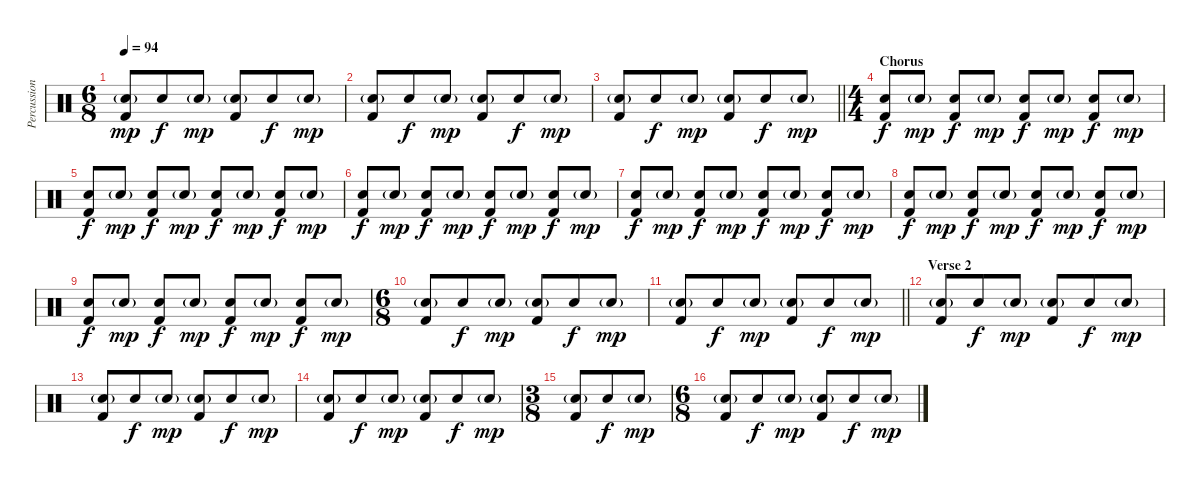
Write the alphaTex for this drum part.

\track ("Percussion" "Percussion") {instrument percussion}
\staff {score}
\articulation defaults
\ts (6 8)
\tempo 94
\clef neutral
\ks c
("Snare (hit) 2"{g} "Kick (hit) 2").8{dy mp} "Snare (hit) 2".8{dy f} "Snare (hit) 2"{g}.8{dy mp} ("Snare (hit) 2"{g} "Kick (hit) 2").8 "Snare (hit) 2".8{dy f} "Snare (hit) 2"{g}.8{dy mp} |
("Snare (hit) 2"{g} "Kick (hit) 2").8 "Snare (hit) 2".8{dy f} "Snare (hit) 2"{g}.8{dy mp} ("Snare (hit) 2"{g} "Kick (hit) 2").8 "Snare (hit) 2".8{dy f} "Snare (hit) 2"{g}.8{dy mp} |
\barLineRight lightlight
("Snare (hit) 2"{g} "Kick (hit) 2").8 "Snare (hit) 2".8{dy f} "Snare (hit) 2"{g}.8{dy mp} ("Snare (hit) 2"{g} "Kick (hit) 2").8 "Snare (hit) 2".8{dy f} "Snare (hit) 2"{g}.8{dy mp} |
\ts (4 4)
\section ("" "Chorus")
("Snare (hit) 2" "Kick (hit) 2").8{dy f} "Snare (hit) 2"{g}.8{dy mp} ("Snare (hit) 2" "Kick (hit) 2").8{dy f} "Snare (hit) 2"{g}.8{dy mp} ("Snare (hit) 2" "Kick (hit) 2").8{dy f} "Snare (hit) 2"{g}.8{dy mp} ("Snare (hit) 2" "Kick (hit) 2").8{dy f} "Snare (hit) 2"{g}.8{dy mp} |
("Snare (hit) 2" "Kick (hit) 2").8{dy f} "Snare (hit) 2"{g}.8{dy mp} ("Snare (hit) 2" "Kick (hit) 2").8{dy f} "Snare (hit) 2"{g}.8{dy mp} ("Snare (hit) 2" "Kick (hit) 2").8{dy f} "Snare (hit) 2"{g}.8{dy mp} ("Snare (hit) 2" "Kick (hit) 2").8{dy f} "Snare (hit) 2"{g}.8{dy mp} |
("Snare (hit) 2" "Kick (hit) 2").8{dy f} "Snare (hit) 2"{g}.8{dy mp} ("Snare (hit) 2" "Kick (hit) 2").8{dy f} "Snare (hit) 2"{g}.8{dy mp} ("Snare (hit) 2" "Kick (hit) 2").8{dy f} "Snare (hit) 2"{g}.8{dy mp} ("Snare (hit) 2" "Kick (hit) 2").8{dy f} "Snare (hit) 2"{g}.8{dy mp} |
("Snare (hit) 2" "Kick (hit) 2").8{dy f} "Snare (hit) 2"{g}.8{dy mp} ("Snare (hit) 2" "Kick (hit) 2").8{dy f} "Snare (hit) 2"{g}.8{dy mp} ("Snare (hit) 2" "Kick (hit) 2").8{dy f} "Snare (hit) 2"{g}.8{dy mp} ("Snare (hit) 2" "Kick (hit) 2").8{dy f} "Snare (hit) 2"{g}.8{dy mp} |
("Snare (hit) 2" "Kick (hit) 2").8{dy f} "Snare (hit) 2"{g}.8{dy mp} ("Snare (hit) 2" "Kick (hit) 2").8{dy f} "Snare (hit) 2"{g}.8{dy mp} ("Snare (hit) 2" "Kick (hit) 2").8{dy f} "Snare (hit) 2"{g}.8{dy mp} ("Snare (hit) 2" "Kick (hit) 2").8{dy f} "Snare (hit) 2"{g}.8{dy mp} |
("Snare (hit) 2" "Kick (hit) 2").8{dy f} "Snare (hit) 2"{g}.8{dy mp} ("Snare (hit) 2" "Kick (hit) 2").8{dy f} "Snare (hit) 2"{g}.8{dy mp} ("Snare (hit) 2" "Kick (hit) 2").8{dy f} "Snare (hit) 2"{g}.8{dy mp} ("Snare (hit) 2" "Kick (hit) 2").8{dy f} "Snare (hit) 2"{g}.8{dy mp} |
\ts (6 8)
("Snare (hit) 2"{g} "Kick (hit) 2").8 "Snare (hit) 2".8{dy f} "Snare (hit) 2"{g}.8{dy mp} ("Snare (hit) 2"{g} "Kick (hit) 2").8 "Snare (hit) 2".8{dy f} "Snare (hit) 2"{g}.8{dy mp} |
\barLineRight lightlight
("Snare (hit) 2"{g} "Kick (hit) 2").8 "Snare (hit) 2".8{dy f} "Snare (hit) 2"{g}.8{dy mp} ("Snare (hit) 2"{g} "Kick (hit) 2").8 "Snare (hit) 2".8{dy f} "Snare (hit) 2"{g}.8{dy mp} |
\section ("" "Verse 2")
("Snare (hit) 2"{g} "Kick (hit) 2").8 "Snare (hit) 2".8{dy f} "Snare (hit) 2"{g}.8{dy mp} ("Snare (hit) 2"{g} "Kick (hit) 2").8 "Snare (hit) 2".8{dy f} "Snare (hit) 2"{g}.8{dy mp} |
("Snare (hit) 2"{g} "Kick (hit) 2").8 "Snare (hit) 2".8{dy f} "Snare (hit) 2"{g}.8{dy mp} ("Snare (hit) 2"{g} "Kick (hit) 2").8 "Snare (hit) 2".8{dy f} "Snare (hit) 2"{g}.8{dy mp} |
("Snare (hit) 2"{g} "Kick (hit) 2").8 "Snare (hit) 2".8{dy f} "Snare (hit) 2"{g}.8{dy mp} ("Snare (hit) 2"{g} "Kick (hit) 2").8 "Snare (hit) 2".8{dy f} "Snare (hit) 2"{g}.8{dy mp} |
\ts (3 8)
("Snare (hit) 2"{g} "Kick (hit) 2").8 "Snare (hit) 2".8{dy f} "Snare (hit) 2"{g}.8{dy mp} |
\ts (6 8)
("Snare (hit) 2"{g} "Kick (hit) 2").8 "Snare (hit) 2".8{dy f} "Snare (hit) 2"{g}.8{dy mp} ("Snare (hit) 2"{g} "Kick (hit) 2").8 "Snare (hit) 2".8{dy f} "Snare (hit) 2"{g}.8{dy mp}
